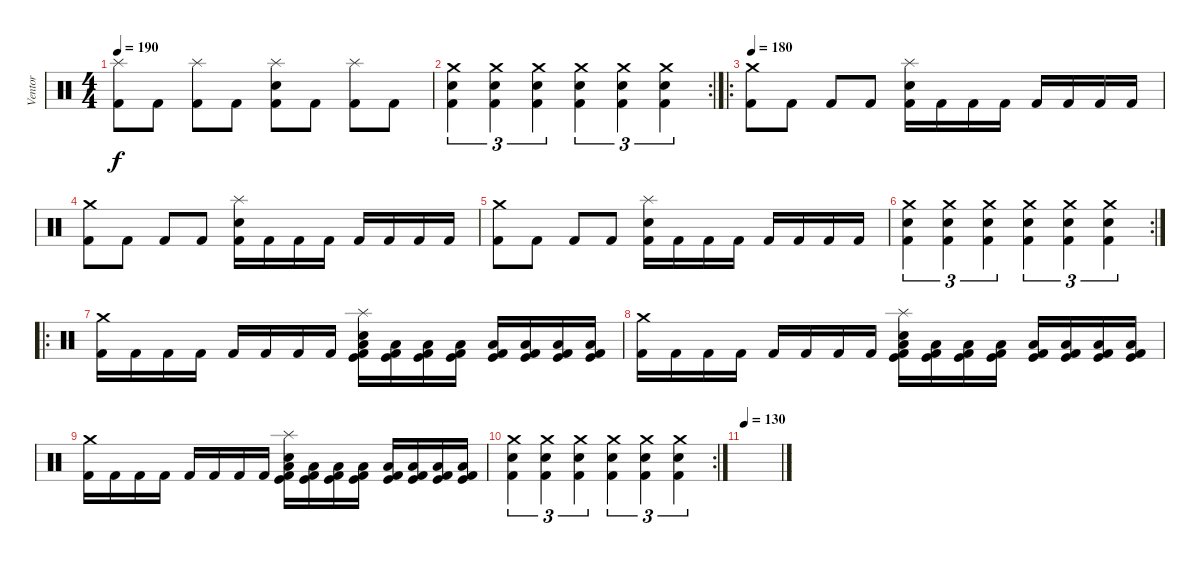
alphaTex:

\track ("Ventor" "Ventor") {instrument percussion}
\staff {score}
\articulation defaults
\ts (4 4)
\tempo 190
\clef neutral
\ks c
("Splash (hit)" "Kick (hit) 2").8{dy f} "Kick (hit) 2".8 ("Splash (hit)" "Kick (hit) 2").8 "Kick (hit) 2".8 ("Splash (hit)" "Electric Snare (hit)" "Kick (hit) 2").8 "Kick (hit) 2".8 ("Splash (hit)" "Kick (hit) 2").8 "Kick (hit) 2".8 |
\rc 2
("Crash medium (hit)" "Electric Snare (hit)" "Kick (hit) 2").4{tu (3 2)} ("Crash medium (hit)" "Electric Snare (hit)" "Kick (hit) 2").4{tu (3 2)} ("Crash medium (hit)" "Electric Snare (hit)" "Kick (hit) 2").4{tu (3 2)} ("Crash medium (hit)" "Electric Snare (hit)" "Kick (hit) 2").4{tu (3 2)} ("Crash medium (hit)" "Electric Snare (hit)" "Kick (hit) 2").4{tu (3 2)} ("Crash medium (hit)" "Electric Snare (hit)" "Kick (hit) 2").4{tu (3 2)} |
\ro
\tempo 180
("Crash medium (hit)" "Kick (hit) 2").8 "Kick (hit) 2".8 "Kick (hit) 2".8 "Kick (hit) 2".8 ("Splash (hit)" "Electric Snare (hit)" "Kick (hit) 2").16 "Kick (hit) 2".16 "Kick (hit) 2".16 "Kick (hit) 2".16 "Kick (hit) 2".16 "Kick (hit) 2".16 "Kick (hit) 2".16 "Kick (hit) 2".16 |
("Crash medium (hit)" "Kick (hit) 2").8 "Kick (hit) 2".8 "Kick (hit) 2".8 "Kick (hit) 2".8 ("Splash (hit)" "Electric Snare (hit)" "Kick (hit) 2").16 "Kick (hit) 2".16 "Kick (hit) 2".16 "Kick (hit) 2".16 "Kick (hit) 2".16 "Kick (hit) 2".16 "Kick (hit) 2".16 "Kick (hit) 2".16 |
("Crash medium (hit)" "Kick (hit) 2").8 "Kick (hit) 2".8 "Kick (hit) 2".8 "Kick (hit) 2".8 ("Splash (hit)" "Electric Snare (hit)" "Kick (hit) 2").16 "Kick (hit) 2".16 "Kick (hit) 2".16 "Kick (hit) 2".16 "Kick (hit) 2".16 "Kick (hit) 2".16 "Kick (hit) 2".16 "Kick (hit) 2".16 |
\rc 2
("Crash medium (hit)" "Electric Snare (hit)" "Kick (hit) 2").4{tu (3 2)} ("Crash medium (hit)" "Electric Snare (hit)" "Kick (hit) 2").4{tu (3 2)} ("Crash medium (hit)" "Electric Snare (hit)" "Kick (hit) 2").4{tu (3 2)} ("Crash medium (hit)" "Electric Snare (hit)" "Kick (hit) 2").4{tu (3 2)} ("Crash medium (hit)" "Electric Snare (hit)" "Kick (hit) 2").4{tu (3 2)} ("Crash medium (hit)" "Electric Snare (hit)" "Kick (hit) 2").4{tu (3 2)} |
\ro
("Crash medium (hit)" "Kick (hit) 2").16 "Kick (hit) 2".16 "Kick (hit) 2".16 "Kick (hit) 2".16 "Kick (hit) 2".16 "Kick (hit) 2".16 "Kick (hit) 2".16 "Kick (hit) 2".16 ("Splash (hit)" "Electric Snare (hit)" "Kick (hit)" "Low Tom (hit)" "Kick (hit) 2").16 ("Kick (hit)" "Low Tom (hit)" "Kick (hit) 2").16 ("Kick (hit)" "Low Tom (hit)" "Kick (hit) 2").16 ("Kick (hit)" "Low Tom (hit)" "Kick (hit) 2").16 ("Kick (hit)" "Low Tom (hit)" "Kick (hit) 2").16 ("Kick (hit)" "Low Tom (hit)" "Kick (hit) 2").16 ("Kick (hit)" "Low Tom (hit)" "Kick (hit) 2").16 ("Kick (hit)" "Low Tom (hit)" "Kick (hit) 2").16 |
("Crash medium (hit)" "Kick (hit) 2").16 "Kick (hit) 2".16 "Kick (hit) 2".16 "Kick (hit) 2".16 "Kick (hit) 2".16 "Kick (hit) 2".16 "Kick (hit) 2".16 "Kick (hit) 2".16 ("Splash (hit)" "Electric Snare (hit)" "Kick (hit)" "Low Tom (hit)" "Kick (hit) 2").16 ("Kick (hit)" "Low Tom (hit)" "Kick (hit) 2").16 ("Kick (hit)" "Low Tom (hit)" "Kick (hit) 2").16 ("Kick (hit)" "Low Tom (hit)" "Kick (hit) 2").16 ("Kick (hit)" "Low Tom (hit)" "Kick (hit) 2").16 ("Kick (hit)" "Low Tom (hit)" "Kick (hit) 2").16 ("Kick (hit)" "Low Tom (hit)" "Kick (hit) 2").16 ("Kick (hit)" "Low Tom (hit)" "Kick (hit) 2").16 |
("Crash medium (hit)" "Kick (hit) 2").16 "Kick (hit) 2".16 "Kick (hit) 2".16 "Kick (hit) 2".16 "Kick (hit) 2".16 "Kick (hit) 2".16 "Kick (hit) 2".16 "Kick (hit) 2".16 ("Splash (hit)" "Electric Snare (hit)" "Kick (hit)" "Low Tom (hit)" "Kick (hit) 2").16 ("Kick (hit)" "Low Tom (hit)" "Kick (hit) 2").16 ("Kick (hit)" "Low Tom (hit)" "Kick (hit) 2").16 ("Kick (hit)" "Low Tom (hit)" "Kick (hit) 2").16 ("Kick (hit)" "Low Tom (hit)" "Kick (hit) 2").16 ("Kick (hit)" "Low Tom (hit)" "Kick (hit) 2").16 ("Kick (hit)" "Low Tom (hit)" "Kick (hit) 2").16 ("Kick (hit)" "Low Tom (hit)" "Kick (hit) 2").16 |
\rc 2
("Crash medium (hit)" "Electric Snare (hit)" "Kick (hit) 2").4{tu (3 2)} ("Crash medium (hit)" "Electric Snare (hit)" "Kick (hit) 2").4{tu (3 2)} ("Crash medium (hit)" "Electric Snare (hit)" "Kick (hit) 2").4{tu (3 2)} ("Crash medium (hit)" "Electric Snare (hit)" "Kick (hit) 2").4{tu (3 2)} ("Crash medium (hit)" "Electric Snare (hit)" "Kick (hit) 2").4{tu (3 2)} ("Crash medium (hit)" "Electric Snare (hit)" "Kick (hit) 2").4{tu (3 2)} |
\tempo 130
